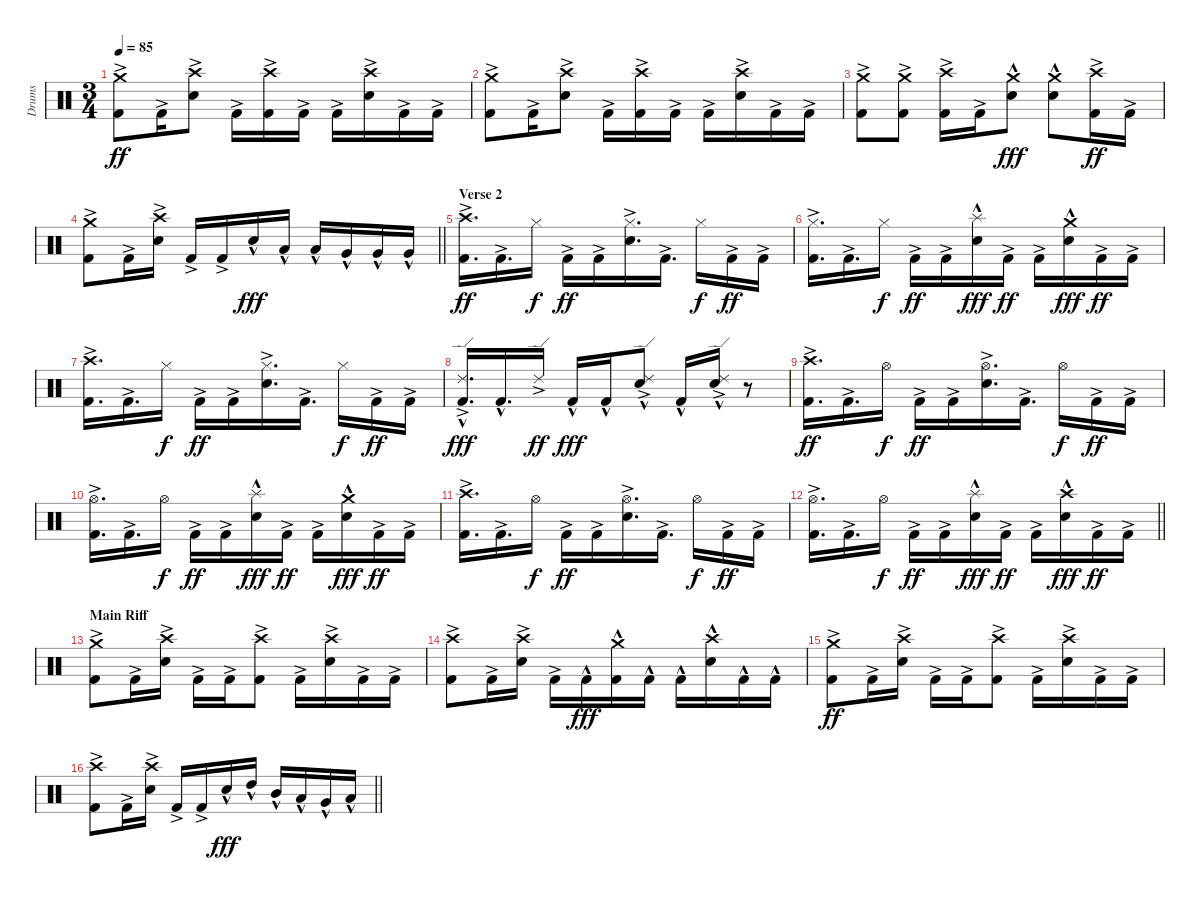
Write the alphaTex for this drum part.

\track ("Drums" "Drums") {instrument percussion}
\staff {score}
\articulation defaults
\ts (3 4)
\tempo 85
\clef neutral
\ks c
("Crash medium (hit)" "Kick (hit) 2"{ac}).8{dy ff} "Kick (hit) 2"{ac}.16 ("Crash high (hit)" "Electric Snare (hit)"{ac}).8 "Kick (hit) 2"{ac}.16 ("Crash high (hit)" "Kick (hit) 2"{ac}).16 "Kick (hit) 2"{ac}.16 "Kick (hit) 2"{ac}.16 ("Crash high (hit)" "Electric Snare (hit)"{ac}).16 "Kick (hit) 2"{ac}.16 "Kick (hit) 2"{ac}.16 |
("Crash medium (hit)" "Kick (hit) 2"{ac}).8 "Kick (hit) 2"{ac}.16 ("Crash high (hit)" "Electric Snare (hit)"{ac}).8 "Kick (hit) 2"{ac}.16 ("Crash high (hit)" "Kick (hit) 2"{ac}).16 "Kick (hit) 2"{ac}.16 "Kick (hit) 2"{ac}.16 ("Crash high (hit)" "Electric Snare (hit)"{ac}).16 "Kick (hit) 2"{ac}.16 "Kick (hit) 2"{ac}.16 |
("Crash medium (hit)" "Kick (hit) 2"{ac}).8 ("Crash medium (hit)" "Kick (hit) 2"{ac}).8 ("Crash high (hit)" "Kick (hit) 2"{ac}).16 "Kick (hit) 2"{ac}.16 ("Crash medium (hit)" "Electric Snare (hit)"{hac}).8{dy fff} ("Crash medium (hit)" "Electric Snare (hit)"{hac}).8 ("Crash high (hit)" "Kick (hit) 2"{ac}).16{dy ff} "Kick (hit) 2"{ac}.16 |
\barLineRight lightlight
("Crash medium (hit)" "Kick (hit) 2"{ac}).8 "Kick (hit) 2"{ac}.16 ("Crash high (hit)" "Electric Snare (hit)"{ac}).16 "Kick (hit) 2"{ac}.16 "Kick (hit) 2"{ac}.16 "Electric Snare (hit)"{hac}.16{dy fff} "Low Floor Tom (hit)"{hac}.16 "Low Floor Tom (hit)"{hac}.16 "Very Low Tom (hit)"{hac}.16 "Very Low Tom (hit)"{hac}.16 "Very Low Tom (hit)"{hac}.16 |
\section ("" "Verse 2")
("Crash high (hit)" "Kick (hit) 2"{ac}).16{d dy ff} "Kick (hit) 2"{ac}.16{d} "Hi-Hat (closed)".16{dy f} "Kick (hit) 2"{ac}.16{dy ff} "Kick (hit) 2"{ac}.16 ("Hi-Hat (closed)" "Electric Snare (hit)"{ac}).16{d} "Kick (hit) 2"{ac}.16{d} "Hi-Hat (closed)".16{dy f} "Kick (hit) 2"{ac}.16{dy ff} "Kick (hit) 2"{ac}.16 |
("Hi-Hat (closed)" "Kick (hit) 2"{ac}).16{d} "Kick (hit) 2"{ac}.16{d} "Hi-Hat (closed)".16{dy f} "Kick (hit) 2"{ac}.16{dy ff} "Kick (hit) 2"{ac}.16 ("Splash (hit)" "Electric Snare (hit)"{hac}).16{dy fff} "Kick (hit) 2"{ac}.16{dy ff} "Kick (hit) 2"{ac}.16 ("Crash medium (hit)" "Electric Snare (hit)"{hac}).16{dy fff} "Kick (hit) 2"{ac}.16{dy ff} "Kick (hit) 2"{ac}.16 |
("Crash high (hit)" "Kick (hit) 2"{ac}).16{d} "Kick (hit) 2"{ac}.16{d} "Hi-Hat (closed)".16{dy f} "Kick (hit) 2"{ac}.16{dy ff} "Kick (hit) 2"{ac}.16 ("Hi-Hat (closed)" "Electric Snare (hit)"{ac}).16{d} "Kick (hit) 2"{ac}.16{d} "Hi-Hat (closed)".16{dy f} "Kick (hit) 2"{ac}.16{dy ff} "Kick (hit) 2"{ac}.16 |
("Ride (edge) 2"{ac} "Kick (hit) 2"{hac}).16{d dy fff} "Kick (hit) 2"{hac}.16{d} "Ride (edge) 2"{ac}.16{dy ff} "Kick (hit) 2"{hac}.16{dy fff} "Kick (hit) 2"{hac}.16 ("Ride (edge) 2"{ac} "Electric Snare (hit)"{hac}).8 "Kick (hit) 2"{hac}.16 ("Ride (edge) 2"{ac} "Electric Snare (hit)"{hac}).16 r.8 |
("Crash high (hit)" "Kick (hit) 2"{ac}).16{d dy ff} "Kick (hit) 2"{ac}.16{d} "Hi-Hat (open)".16{dy f} "Kick (hit) 2"{ac}.16{dy ff} "Kick (hit) 2"{ac}.16 ("Hi-Hat (open)" "Electric Snare (hit)"{ac}).16{d} "Kick (hit) 2"{ac}.16{d} "Hi-Hat (open)".16{dy f} "Kick (hit) 2"{ac}.16{dy ff} "Kick (hit) 2"{ac}.16 |
("Hi-Hat (open)" "Kick (hit) 2"{ac}).16{d} "Kick (hit) 2"{ac}.16{d} "Hi-Hat (open)".16{dy f} "Kick (hit) 2"{ac}.16{dy ff} "Kick (hit) 2"{ac}.16 ("Splash (hit)" "Electric Snare (hit)"{hac}).16{dy fff} "Kick (hit) 2"{ac}.16{dy ff} "Kick (hit) 2"{ac}.16 ("Crash medium (hit)" "Electric Snare (hit)"{hac}).16{dy fff} "Kick (hit) 2"{ac}.16{dy ff} "Kick (hit) 2"{ac}.16 |
("Crash high (hit)" "Kick (hit) 2"{ac}).16{d} "Kick (hit) 2"{ac}.16{d} "Hi-Hat (open)".16{dy f} "Kick (hit) 2"{ac}.16{dy ff} "Kick (hit) 2"{ac}.16 ("Hi-Hat (open)" "Electric Snare (hit)"{ac}).16{d} "Kick (hit) 2"{ac}.16{d} "Hi-Hat (open)".16{dy f} "Kick (hit) 2"{ac}.16{dy ff} "Kick (hit) 2"{ac}.16 |
\barLineRight lightlight
("Hi-Hat (open)" "Kick (hit) 2"{ac}).16{d} "Kick (hit) 2"{ac}.16{d} "Hi-Hat (open)".16{dy f} "Kick (hit) 2"{ac}.16{dy ff} "Kick (hit) 2"{ac}.16 ("Splash (hit)" "Electric Snare (hit)"{hac}).16{dy fff} "Kick (hit) 2"{ac}.16{dy ff} "Kick (hit) 2"{ac}.16 ("Crash high (hit)" "Electric Snare (hit)"{hac}).16{dy fff} "Kick (hit) 2"{ac}.16{dy ff} "Kick (hit) 2"{ac}.16 |
\section ("" "Main Riff")
("Crash medium (hit)" "Kick (hit) 2"{ac}).8 "Kick (hit) 2"{ac}.16 ("Crash high (hit)" "Electric Snare (hit)"{ac}).16 "Kick (hit) 2"{ac}.16 "Kick (hit) 2"{ac}.16 ("Crash high (hit)" "Kick (hit) 2"{ac}).8 "Kick (hit) 2"{ac}.16 ("Crash high (hit)" "Electric Snare (hit)"{ac}).16 "Kick (hit) 2"{ac}.16 "Kick (hit) 2"{ac}.16 |
("Crash high (hit)" "Kick (hit) 2"{ac}).8 "Kick (hit) 2"{ac}.16 ("Crash high (hit)" "Electric Snare (hit)"{ac}).16 "Kick (hit) 2"{ac}.16 "Kick (hit) 2"{hac}.16{dy fff} ("Crash medium (hit)" "Kick (hit) 2"{hac}).16 "Kick (hit) 2"{hac}.16 "Kick (hit) 2"{hac}.16 ("Crash high (hit)" "Electric Snare (hit)"{hac}).16 "Kick (hit) 2"{hac}.16 "Kick (hit) 2"{hac}.16 |
("Crash medium (hit)" "Kick (hit) 2"{ac}).8{dy ff} "Kick (hit) 2"{ac}.16 ("Crash high (hit)" "Electric Snare (hit)"{ac}).16 "Kick (hit) 2"{ac}.16 "Kick (hit) 2"{ac}.16 ("Crash high (hit)" "Kick (hit) 2"{ac}).8 "Kick (hit) 2"{ac}.16 ("Crash high (hit)" "Electric Snare (hit)"{ac}).16 "Kick (hit) 2"{ac}.16 "Kick (hit) 2"{ac}.16 |
\barLineRight lightlight
("Crash high (hit)" "Kick (hit) 2"{ac}).8 "Kick (hit) 2"{ac}.16 ("Crash high (hit)" "Electric Snare (hit)"{ac}).16 "Kick (hit) 2"{ac}.16 "Kick (hit) 2"{ac}.16 "Electric Snare (hit)"{hac}.16{dy fff} "High Tom (hit)"{hac}.16 "Mid Tom (hit)"{hac}.16 "Low Tom (hit)"{hac}.16 "Very Low Tom (hit)"{hac}.16 "Low Floor Tom (hit)"{hac}.16
